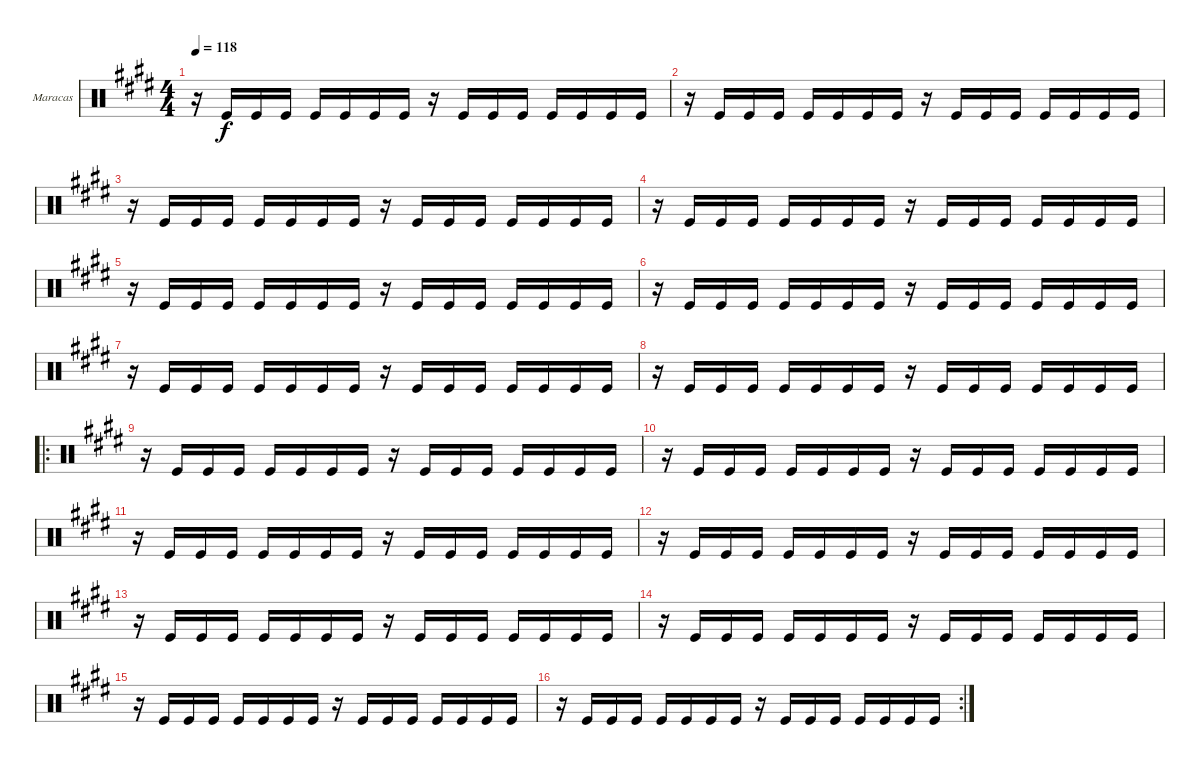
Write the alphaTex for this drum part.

\bracketExtendMode groupsimilarinstruments
\firstSystemTrackNameOrientation horizontal
\otherSystemsTrackNameOrientation horizontal
\track ("Maracas" "Maracas") {instrument percussion}
\staff {score}
\articulation defaults
\ts (4 4)
\tempo 118
\clef neutral
\ks e
r.16{dy f} "Kick (hit)".16 "Kick (hit)".16 "Kick (hit)".16 "Kick (hit)".16 "Kick (hit)".16 "Kick (hit)".16 "Kick (hit)".16 r.16 "Kick (hit)".16 "Kick (hit)".16 "Kick (hit)".16 "Kick (hit)".16 "Kick (hit)".16 "Kick (hit)".16 "Kick (hit)".16 |
r.16 "Kick (hit)".16 "Kick (hit)".16 "Kick (hit)".16 "Kick (hit)".16 "Kick (hit)".16 "Kick (hit)".16 "Kick (hit)".16 r.16 "Kick (hit)".16 "Kick (hit)".16 "Kick (hit)".16 "Kick (hit)".16 "Kick (hit)".16 "Kick (hit)".16 "Kick (hit)".16 |
r.16 "Kick (hit)".16 "Kick (hit)".16 "Kick (hit)".16 "Kick (hit)".16 "Kick (hit)".16 "Kick (hit)".16 "Kick (hit)".16 r.16 "Kick (hit)".16 "Kick (hit)".16 "Kick (hit)".16 "Kick (hit)".16 "Kick (hit)".16 "Kick (hit)".16 "Kick (hit)".16 |
r.16 "Kick (hit)".16 "Kick (hit)".16 "Kick (hit)".16 "Kick (hit)".16 "Kick (hit)".16 "Kick (hit)".16 "Kick (hit)".16 r.16 "Kick (hit)".16 "Kick (hit)".16 "Kick (hit)".16 "Kick (hit)".16 "Kick (hit)".16 "Kick (hit)".16 "Kick (hit)".16 |
r.16 "Kick (hit)".16 "Kick (hit)".16 "Kick (hit)".16 "Kick (hit)".16 "Kick (hit)".16 "Kick (hit)".16 "Kick (hit)".16 r.16 "Kick (hit)".16 "Kick (hit)".16 "Kick (hit)".16 "Kick (hit)".16 "Kick (hit)".16 "Kick (hit)".16 "Kick (hit)".16 |
r.16 "Kick (hit)".16 "Kick (hit)".16 "Kick (hit)".16 "Kick (hit)".16 "Kick (hit)".16 "Kick (hit)".16 "Kick (hit)".16 r.16 "Kick (hit)".16 "Kick (hit)".16 "Kick (hit)".16 "Kick (hit)".16 "Kick (hit)".16 "Kick (hit)".16 "Kick (hit)".16 |
r.16 "Kick (hit)".16 "Kick (hit)".16 "Kick (hit)".16 "Kick (hit)".16 "Kick (hit)".16 "Kick (hit)".16 "Kick (hit)".16 r.16 "Kick (hit)".16 "Kick (hit)".16 "Kick (hit)".16 "Kick (hit)".16 "Kick (hit)".16 "Kick (hit)".16 "Kick (hit)".16 |
r.16 "Kick (hit)".16 "Kick (hit)".16 "Kick (hit)".16 "Kick (hit)".16 "Kick (hit)".16 "Kick (hit)".16 "Kick (hit)".16 r.16 "Kick (hit)".16 "Kick (hit)".16 "Kick (hit)".16 "Kick (hit)".16 "Kick (hit)".16 "Kick (hit)".16 "Kick (hit)".16 |
\ro
r.16 "Kick (hit)".16 "Kick (hit)".16 "Kick (hit)".16 "Kick (hit)".16 "Kick (hit)".16 "Kick (hit)".16 "Kick (hit)".16 r.16 "Kick (hit)".16 "Kick (hit)".16 "Kick (hit)".16 "Kick (hit)".16 "Kick (hit)".16 "Kick (hit)".16 "Kick (hit)".16 |
r.16 "Kick (hit)".16 "Kick (hit)".16 "Kick (hit)".16 "Kick (hit)".16 "Kick (hit)".16 "Kick (hit)".16 "Kick (hit)".16 r.16 "Kick (hit)".16 "Kick (hit)".16 "Kick (hit)".16 "Kick (hit)".16 "Kick (hit)".16 "Kick (hit)".16 "Kick (hit)".16 |
r.16 "Kick (hit)".16 "Kick (hit)".16 "Kick (hit)".16 "Kick (hit)".16 "Kick (hit)".16 "Kick (hit)".16 "Kick (hit)".16 r.16 "Kick (hit)".16 "Kick (hit)".16 "Kick (hit)".16 "Kick (hit)".16 "Kick (hit)".16 "Kick (hit)".16 "Kick (hit)".16 |
r.16 "Kick (hit)".16 "Kick (hit)".16 "Kick (hit)".16 "Kick (hit)".16 "Kick (hit)".16 "Kick (hit)".16 "Kick (hit)".16 r.16 "Kick (hit)".16 "Kick (hit)".16 "Kick (hit)".16 "Kick (hit)".16 "Kick (hit)".16 "Kick (hit)".16 "Kick (hit)".16 |
r.16 "Kick (hit)".16 "Kick (hit)".16 "Kick (hit)".16 "Kick (hit)".16 "Kick (hit)".16 "Kick (hit)".16 "Kick (hit)".16 r.16 "Kick (hit)".16 "Kick (hit)".16 "Kick (hit)".16 "Kick (hit)".16 "Kick (hit)".16 "Kick (hit)".16 "Kick (hit)".16 |
r.16 "Kick (hit)".16 "Kick (hit)".16 "Kick (hit)".16 "Kick (hit)".16 "Kick (hit)".16 "Kick (hit)".16 "Kick (hit)".16 r.16 "Kick (hit)".16 "Kick (hit)".16 "Kick (hit)".16 "Kick (hit)".16 "Kick (hit)".16 "Kick (hit)".16 "Kick (hit)".16 |
r.16 "Kick (hit)".16 "Kick (hit)".16 "Kick (hit)".16 "Kick (hit)".16 "Kick (hit)".16 "Kick (hit)".16 "Kick (hit)".16 r.16 "Kick (hit)".16 "Kick (hit)".16 "Kick (hit)".16 "Kick (hit)".16 "Kick (hit)".16 "Kick (hit)".16 "Kick (hit)".16 |
\rc 2
r.16 "Kick (hit)".16 "Kick (hit)".16 "Kick (hit)".16 "Kick (hit)".16 "Kick (hit)".16 "Kick (hit)".16 "Kick (hit)".16 r.16 "Kick (hit)".16 "Kick (hit)".16 "Kick (hit)".16 "Kick (hit)".16 "Kick (hit)".16 "Kick (hit)".16 "Kick (hit)".16
